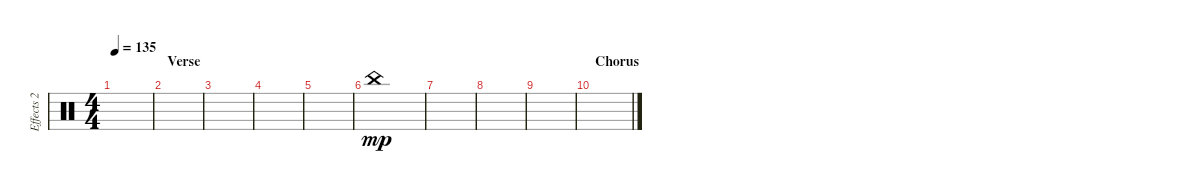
\track ("Effects 2" "Effects 2") {instrument percussion}
\staff {score}
\articulation defaults
\ts (4 4)
\tempo 135
\clef neutral
\ks c
|
\section ("" "Verse")
|
|
|
|
"China (hit)".1{dy mp} |
|
|
|
\section ("" "Chorus")
